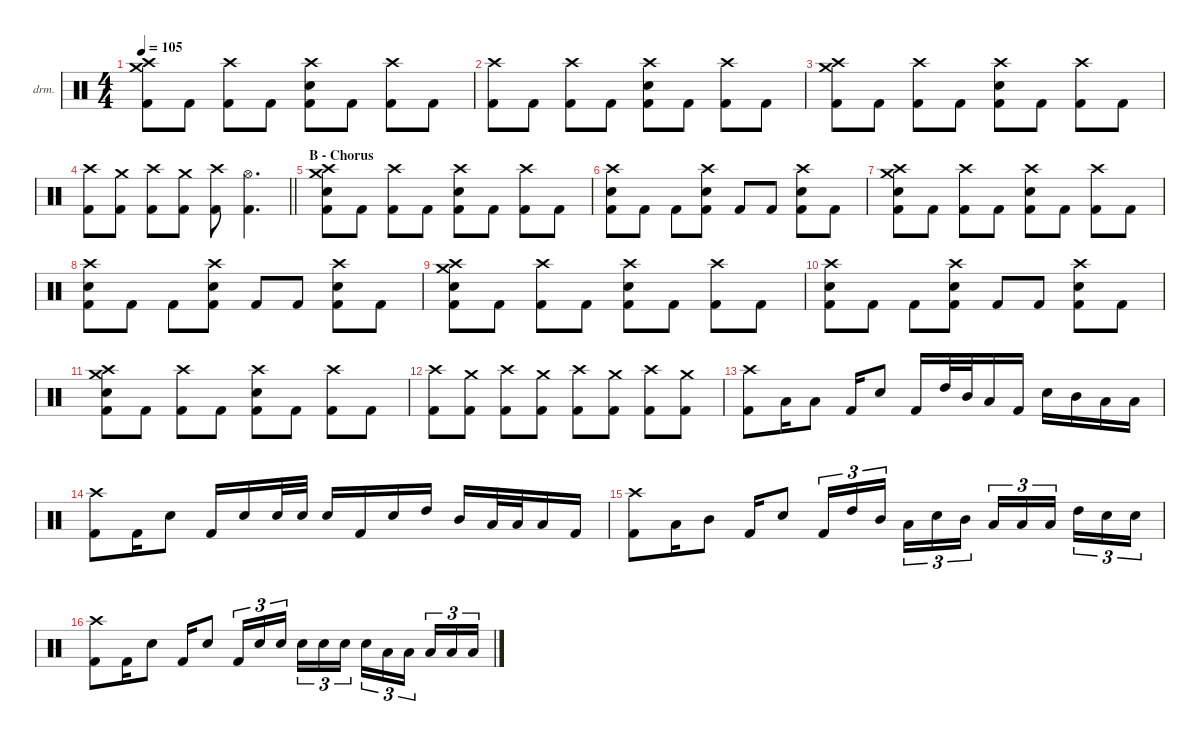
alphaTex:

\defaultSystemsLayout 4
\hideDynamics
\bracketExtendMode nobrackets
\firstSystemTrackNameOrientation horizontal
\otherSystemsTrackNameOrientation horizontal
\track ("Percussions" "drm.") {instrument percussion}
\staff {score}
\articulation defaults
\ts (4 4)
\tempo 105
\clef neutral
\ks c
("Crash medium (hit)" "Crash high (hit)" "Kick (hit) 2").8{dy f} "Kick (hit) 2".8 ("Crash high (hit)" "Kick (hit) 2").8 "Kick (hit) 2".8 ("Crash high (hit)" "Snare (hit) 2" "Kick (hit) 2").8 "Kick (hit) 2".8 ("Crash high (hit)" "Kick (hit) 2").8 "Kick (hit) 2".8 |
("Crash high (hit)" "Kick (hit) 2").8 "Kick (hit) 2".8 ("Crash high (hit)" "Kick (hit) 2").8 "Kick (hit) 2".8 ("Crash high (hit)" "Snare (hit) 2" "Kick (hit) 2").8 "Kick (hit) 2".8 ("Crash high (hit)" "Kick (hit) 2").8 "Kick (hit) 2".8 |
("Crash medium (hit)" "Crash high (hit)" "Kick (hit) 2").8 "Kick (hit) 2".8 ("Crash high (hit)" "Kick (hit) 2").8 "Kick (hit) 2".8 ("Crash high (hit)" "Snare (hit) 2" "Kick (hit) 2").8 "Kick (hit) 2".8 ("Crash high (hit)" "Kick (hit) 2").8 "Kick (hit) 2".8 |
\barLineRight lightlight
("Crash high (hit)" "Kick (hit) 2").8 ("Crash medium (hit)" "Kick (hit) 2").8 ("Crash high (hit)" "Kick (hit) 2").8 ("Crash medium (hit)" "Kick (hit) 2").8 ("Crash high (hit)" "Kick (hit) 2").8 ("Hi-Hat (open)" "Kick (hit) 2").4{d} |
\section ("" "B - Chorus")
("Crash medium (hit)" "Crash high (hit)" "Snare (hit) 2" "Kick (hit) 2").8 "Kick (hit) 2".8 ("Crash high (hit)" "Kick (hit) 2").8 "Kick (hit) 2".8 ("Crash high (hit)" "Snare (hit) 2" "Kick (hit) 2").8 "Kick (hit) 2".8 ("Crash high (hit)" "Kick (hit) 2").8 "Kick (hit) 2".8 |
("Crash high (hit)" "Snare (hit) 2" "Kick (hit) 2").8 "Kick (hit) 2".8 "Kick (hit) 2".8 ("Crash high (hit)" "Snare (hit) 2" "Kick (hit) 2").8{dy fff} "Kick (hit) 2".8{dy f} "Kick (hit) 2".8 ("Crash high (hit)" "Snare (hit) 2" "Kick (hit) 2").8 "Kick (hit) 2".8 |
("Crash medium (hit)" "Crash high (hit)" "Snare (hit) 2" "Kick (hit) 2").8 "Kick (hit) 2".8 ("Crash high (hit)" "Kick (hit) 2").8 "Kick (hit) 2".8 ("Crash high (hit)" "Snare (hit) 2" "Kick (hit) 2").8 "Kick (hit) 2".8 ("Crash high (hit)" "Kick (hit) 2").8 "Kick (hit) 2".8 |
("Crash high (hit)" "Snare (hit) 2" "Kick (hit) 2").8 "Kick (hit) 2".8 "Kick (hit) 2".8 ("Crash high (hit)" "Snare (hit) 2" "Kick (hit) 2").8{dy fff} "Kick (hit) 2".8{dy f} "Kick (hit) 2".8 ("Crash high (hit)" "Snare (hit) 2" "Kick (hit) 2").8 "Kick (hit) 2".8 |
("Crash medium (hit)" "Crash high (hit)" "Snare (hit) 2" "Kick (hit) 2").8 "Kick (hit) 2".8 ("Crash high (hit)" "Kick (hit) 2").8 "Kick (hit) 2".8 ("Crash high (hit)" "Snare (hit) 2" "Kick (hit) 2").8 "Kick (hit) 2".8 ("Crash high (hit)" "Kick (hit) 2").8 "Kick (hit) 2".8 |
("Crash high (hit)" "Snare (hit) 2" "Kick (hit) 2").8 "Kick (hit) 2".8 "Kick (hit) 2".8 ("Crash high (hit)" "Snare (hit) 2" "Kick (hit) 2").8{dy fff} "Kick (hit) 2".8{dy f} "Kick (hit) 2".8 ("Crash high (hit)" "Snare (hit) 2" "Kick (hit) 2").8 "Kick (hit) 2".8 |
("Crash medium (hit)" "Crash high (hit)" "Snare (hit) 2" "Kick (hit) 2").8 "Kick (hit) 2".8 ("Crash high (hit)" "Kick (hit) 2").8 "Kick (hit) 2".8 ("Crash high (hit)" "Snare (hit) 2" "Kick (hit) 2").8 "Kick (hit) 2".8 ("Crash high (hit)" "Kick (hit) 2").8 "Kick (hit) 2".8 |
("Crash high (hit)" "Kick (hit) 2").8 ("Crash medium (hit)" "Kick (hit) 2").8 ("Crash high (hit)" "Kick (hit) 2").8 ("Crash medium (hit)" "Kick (hit) 2").8 ("Crash high (hit)" "Kick (hit) 2").8 ("Crash medium (hit)" "Kick (hit) 2").8 ("Crash high (hit)" "Kick (hit) 2").8 ("Crash medium (hit)" "Kick (hit) 2").8 |
("Crash high (hit)" "Kick (hit) 2").8 "Low Tom (hit)".16 "Low Floor Tom (hit)".8 "Kick (hit) 2".16 "Snare (hit) 2".8 "Kick (hit) 2".16 "High Tom (hit)".32 "Mid Tom (hit)".32 "Low Tom (hit)".16 "Kick (hit) 2".16 "Snare (hit) 2".16 "Mid Tom (hit)".16 "Low Tom (hit)".16 "Low Floor Tom (hit)".16 |
("Crash high (hit)" "Kick (hit) 2").8 "Kick (hit) 2".16 "Snare (hit) 2".8 "Kick (hit) 2".16 "Snare (hit) 2".16 "Snare (hit) 2".32 "Snare (hit) 2".32 "Snare (hit) 2".16 "Kick (hit) 2".16 "Snare (hit) 2".16 "High Tom (hit)".16 "Mid Tom (hit)".16 "Low Tom (hit)".32 "Low Floor Tom (hit)".32 "Low Floor Tom (hit)".16 "Kick (hit) 2".16 |
("Crash high (hit)" "Kick (hit) 2").8 "Low Floor Tom (hit)".16 "Mid Tom (hit)".8 "Kick (hit) 2".16 "Snare (hit) 2".8 "Kick (hit) 2".16{tu (3 2)} "High Tom (hit)".16{tu (3 2)} "Mid Tom (hit)".16{tu (3 2)} "Low Tom (hit)".16{tu (3 2)} "Snare (hit) 2".16{tu (3 2)} "Mid Tom (hit)".16{tu (3 2)} "Low Tom (hit)".16{tu (3 2)} "Low Floor Tom (hit)".16{tu (3 2)} "Low Tom (hit)".16{tu (3 2)} "High Tom (hit)".16{tu (3 2)} "Snare (hit) 2".16{tu (3 2)} "Snare (hit) 2".16{tu (3 2)} |
("Crash high (hit)" "Kick (hit) 2").8 "Kick (hit) 2".16 "Snare (hit) 2".8 "Kick (hit) 2".16 "Snare (hit) 2".8 "Kick (hit) 2".16{tu (3 2)} "Snare (hit) 2".16{tu (3 2)} "Snare (hit) 2".16{tu (3 2)} "Snare (hit) 2".16{tu (3 2)} "Snare (hit) 2".16{tu (3 2)} "Snare (hit) 2".16{tu (3 2)} "Snare (hit) 2".16{tu (3 2)} "Low Tom (hit)".16{tu (3 2)} "Low Tom (hit)".16{tu (3 2)} "Low Tom (hit)".16{tu (3 2)} "Low Floor Tom (hit)".16{tu (3 2)} "Low Floor Tom (hit)".16{tu (3 2)}
